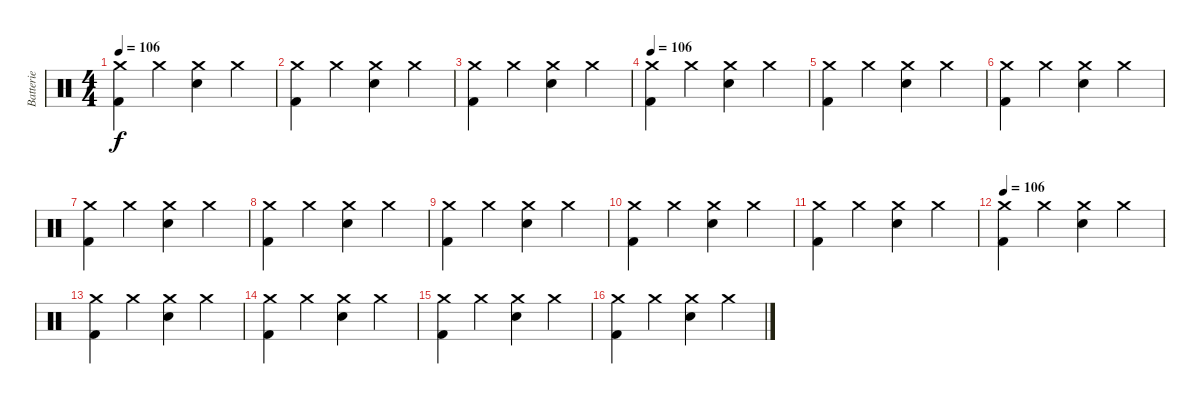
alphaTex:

\track ("Batterie" "Batterie") {instrument percussion}
\staff {score}
\articulation defaults
\ts (4 4)
\tempo 106
\clef neutral
\ks c
("Crash medium (hit)" "Kick (hit) 2").4{dy f} "Crash medium (hit)".4 ("Crash medium (hit)" "Snare (hit) 2").4 "Crash medium (hit)".4 |
("Crash medium (hit)" "Kick (hit) 2").4 "Crash medium (hit)".4 ("Crash medium (hit)" "Snare (hit) 2").4 "Crash medium (hit)".4 |
("Crash medium (hit)" "Kick (hit) 2").4 "Crash medium (hit)".4 ("Crash medium (hit)" "Snare (hit) 2").4 "Crash medium (hit)".4 |
\tempo 106
("Crash medium (hit)" "Kick (hit) 2").4 "Crash medium (hit)".4 ("Crash medium (hit)" "Snare (hit) 2").4 "Crash medium (hit)".4 |
("Crash medium (hit)" "Kick (hit) 2").4 "Crash medium (hit)".4 ("Crash medium (hit)" "Snare (hit) 2").4 "Crash medium (hit)".4 |
("Crash medium (hit)" "Kick (hit) 2").4 "Crash medium (hit)".4 ("Crash medium (hit)" "Snare (hit) 2").4 "Crash medium (hit)".4 |
("Crash medium (hit)" "Kick (hit) 2").4 "Crash medium (hit)".4 ("Crash medium (hit)" "Snare (hit) 2").4 "Crash medium (hit)".4 |
("Crash medium (hit)" "Kick (hit) 2").4 "Crash medium (hit)".4 ("Crash medium (hit)" "Snare (hit) 2").4 "Crash medium (hit)".4 |
("Crash medium (hit)" "Kick (hit) 2").4 "Crash medium (hit)".4 ("Crash medium (hit)" "Snare (hit) 2").4 "Crash medium (hit)".4 |
("Crash medium (hit)" "Kick (hit) 2").4 "Crash medium (hit)".4 ("Crash medium (hit)" "Snare (hit) 2").4 "Crash medium (hit)".4 |
("Crash medium (hit)" "Kick (hit) 2").4 "Crash medium (hit)".4 ("Crash medium (hit)" "Snare (hit) 2").4 "Crash medium (hit)".4 |
\tempo 106
("Crash medium (hit)" "Kick (hit) 2").4 "Crash medium (hit)".4 ("Crash medium (hit)" "Snare (hit) 2").4 "Crash medium (hit)".4 |
("Crash medium (hit)" "Kick (hit) 2").4 "Crash medium (hit)".4 ("Crash medium (hit)" "Snare (hit) 2").4 "Crash medium (hit)".4 |
("Crash medium (hit)" "Kick (hit) 2").4 "Crash medium (hit)".4 ("Crash medium (hit)" "Snare (hit) 2").4 "Crash medium (hit)".4 |
("Crash medium (hit)" "Kick (hit) 2").4 "Crash medium (hit)".4 ("Crash medium (hit)" "Snare (hit) 2").4 "Crash medium (hit)".4 |
("Crash medium (hit)" "Kick (hit) 2").4 "Crash medium (hit)".4 ("Crash medium (hit)" "Snare (hit) 2").4 "Crash medium (hit)".4
